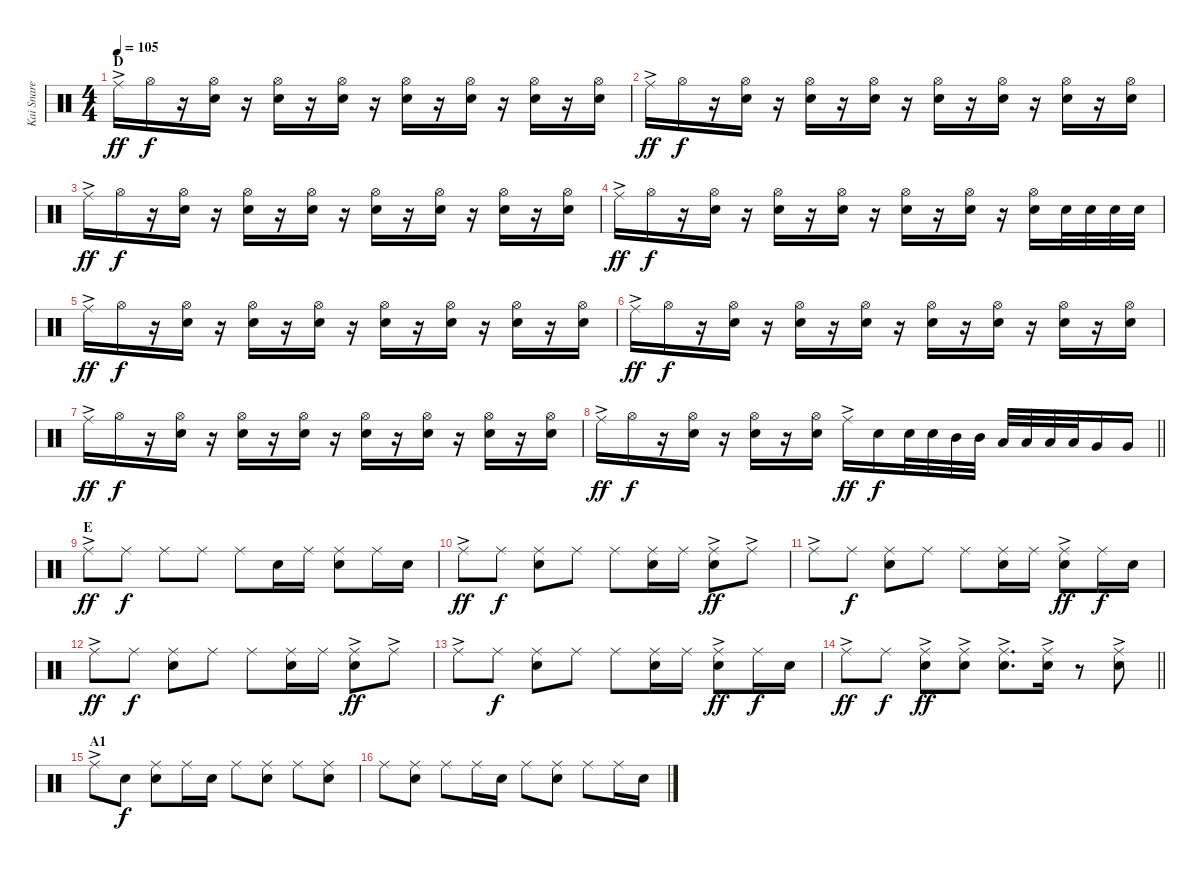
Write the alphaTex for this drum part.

\track ("Kai Snare" "Kai Snare") {instrument percussion}
\staff {score}
\articulation defaults
\ts (4 4)
\section ("" "D")
\tempo 105
\clef neutral
\ks c "Ride (middle)"{ac}.16{dy ff} "Hi-Hat (open)".16{dy f}
r.16 ("Hi-Hat (open)" "Snare (hit) 2").16 r.16 ("Hi-Hat (open)" "Snare (hit) 2").16 r.16 ("Hi-Hat (open)" "Snare (hit) 2").16 r.16 ("Hi-Hat (open)" "Snare (hit) 2").16 r.16 ("Hi-Hat (open)" "Snare (hit) 2").16 r.16 ("Hi-Hat (open)" "Snare (hit) 2").16 r.16 ("Hi-Hat (open)" "Snare (hit) 2").16 |
"Ride (middle)"{ac}.16{dy ff} "Hi-Hat (open)".16{dy f} r.16 ("Hi-Hat (open)" "Snare (hit) 2").16 r.16 ("Hi-Hat (open)" "Snare (hit) 2").16 r.16 ("Hi-Hat (open)" "Snare (hit) 2").16 r.16 ("Hi-Hat (open)" "Snare (hit) 2").16 r.16 ("Hi-Hat (open)" "Snare (hit) 2").16 r.16 ("Hi-Hat (open)" "Snare (hit) 2").16 r.16 ("Hi-Hat (open)" "Snare (hit) 2").16 |
"Ride (middle)"{ac}.16{dy ff} "Hi-Hat (open)".16{dy f} r.16 ("Hi-Hat (open)" "Snare (hit) 2").16 r.16 ("Hi-Hat (open)" "Snare (hit) 2").16 r.16 ("Hi-Hat (open)" "Snare (hit) 2").16 r.16 ("Hi-Hat (open)" "Snare (hit) 2").16 r.16 ("Hi-Hat (open)" "Snare (hit) 2").16 r.16 ("Hi-Hat (open)" "Snare (hit) 2").16 r.16 ("Hi-Hat (open)" "Snare (hit) 2").16 |
"Ride (middle)"{ac}.16{dy ff} "Hi-Hat (open)".16{dy f} r.16 ("Hi-Hat (open)" "Snare (hit) 2").16 r.16 ("Hi-Hat (open)" "Snare (hit) 2").16 r.16 ("Hi-Hat (open)" "Snare (hit) 2").16 r.16 ("Hi-Hat (open)" "Snare (hit) 2").16 r.16 ("Hi-Hat (open)" "Snare (hit) 2").16 r.16 ("Hi-Hat (open)" "Snare (hit) 2").16 "Snare (hit) 2".32 "Snare (hit) 2".32 "Snare (hit) 2".32 "Snare (hit) 2".32 |
"Ride (middle)"{ac}.16{dy ff} "Hi-Hat (open)".16{dy f} r.16 ("Hi-Hat (open)" "Snare (hit) 2").16 r.16 ("Hi-Hat (open)" "Snare (hit) 2").16 r.16 ("Hi-Hat (open)" "Snare (hit) 2").16 r.16 ("Hi-Hat (open)" "Snare (hit) 2").16 r.16 ("Hi-Hat (open)" "Snare (hit) 2").16 r.16 ("Hi-Hat (open)" "Snare (hit) 2").16 r.16 ("Hi-Hat (open)" "Snare (hit) 2").16 |
"Ride (middle)"{ac}.16{dy ff} "Hi-Hat (open)".16{dy f} r.16 ("Hi-Hat (open)" "Snare (hit) 2").16 r.16 ("Hi-Hat (open)" "Snare (hit) 2").16 r.16 ("Hi-Hat (open)" "Snare (hit) 2").16 r.16 ("Hi-Hat (open)" "Snare (hit) 2").16 r.16 ("Hi-Hat (open)" "Snare (hit) 2").16 r.16 ("Hi-Hat (open)" "Snare (hit) 2").16 r.16 ("Hi-Hat (open)" "Snare (hit) 2").16 |
"Ride (middle)"{ac}.16{dy ff} "Hi-Hat (open)".16{dy f} r.16 ("Hi-Hat (open)" "Snare (hit) 2").16 r.16 ("Hi-Hat (open)" "Snare (hit) 2").16 r.16 ("Hi-Hat (open)" "Snare (hit) 2").16 r.16 ("Hi-Hat (open)" "Snare (hit) 2").16 r.16 ("Hi-Hat (open)" "Snare (hit) 2").16 r.16 ("Hi-Hat (open)" "Snare (hit) 2").16 r.16 ("Hi-Hat (open)" "Snare (hit) 2").16 |
\barLineRight lightlight "Ride (middle)"{ac}.16{dy ff} "Hi-Hat (open)".16{dy f}
r.16 ("Hi-Hat (open)" "Snare (hit) 2").16 r.16 ("Hi-Hat (open)" "Snare (hit) 2").16 r.16 ("Hi-Hat (open)" "Snare (hit) 2").16 "Ride (middle)"{ac}.16{dy ff} "Snare (hit) 2".16{dy f} "Snare (hit) 2".32 "Snare (hit) 2".32 "Mid Tom (hit)".32 "Mid Tom (hit)".32 "Low Tom (hit)".32 "Low Tom (hit)".32 "Low Tom (hit)".32 "Low Tom (hit)".32 "Very Low Tom (hit)".16 "Very Low Tom (hit)".16 |
\section ("" "E")
"Ride (middle)"{ac}.8{dy ff} "Ride (middle)".8{dy f} "Ride (middle)".8 "Ride (middle)".8 "Ride (middle)".8 "Snare (hit) 2".16 "Ride (middle)".16 ("Ride (middle)" "Snare (hit) 2").8 "Ride (middle)".16 "Snare (hit) 2".16 |
"Ride (middle)"{ac}.8{dy ff} "Ride (middle)".8{dy f} ("Ride (middle)" "Snare (hit) 2").8 "Ride (middle)".8 "Ride (middle)".8 ("Ride (middle)" "Snare (hit) 2").16 "Ride (middle)".16 ("Ride (middle)"{ac} "Snare (hit) 2").8{dy ff} "Ride (middle)"{ac}.8 |
"Ride (middle)"{ac}.8 "Ride (middle)".8{dy f} ("Ride (middle)" "Snare (hit) 2").8 "Ride (middle)".8 "Ride (middle)".8 ("Ride (middle)" "Snare (hit) 2").16 "Ride (middle)".16 ("Ride (middle)"{ac} "Snare (hit) 2").8{dy ff} "Ride (middle)".16{dy f} "Snare (hit) 2".16 |
"Ride (middle)"{ac}.8{dy ff} "Ride (middle)".8{dy f} ("Ride (middle)" "Snare (hit) 2").8 "Ride (middle)".8 "Ride (middle)".8 ("Ride (middle)" "Snare (hit) 2").16 "Ride (middle)".16 ("Ride (middle)"{ac} "Snare (hit) 2").8{dy ff} "Ride (middle)"{ac}.8 |
"Ride (middle)"{ac}.8 "Ride (middle)".8{dy f} ("Ride (middle)" "Snare (hit) 2").8 "Ride (middle)".8 "Ride (middle)".8 ("Ride (middle)" "Snare (hit) 2").16 "Ride (middle)".16 ("Ride (middle)"{ac} "Snare (hit) 2").8{dy ff} "Ride (middle)".16{dy f} "Snare (hit) 2".16 |
\barLineRight lightlight "Ride (middle)"{ac}.8{dy ff} "Ride (middle)".8{dy f}
("Ride (middle)"{ac} "Snare (hit) 2").8{dy ff} ("Ride (middle)"{ac} "Snare (hit) 2").8 ("Ride (middle)"{ac} "Snare (hit) 2").8{d} ("Ride (middle)"{ac} "Snare (hit) 2").16 r.8 ("Ride (middle)"{ac} "Snare (hit) 2").8 |
\section ("" "A1")
"Ride (middle)"{ac}.8 "Snare (hit) 2".8{dy f} ("Ride (middle)" "Snare (hit) 2").8 "Ride (middle)".16 "Snare (hit) 2".16 "Ride (middle)".8 ("Ride (middle)" "Snare (hit) 2").8 "Ride (middle)".8 ("Ride (middle)" "Snare (hit) 2").8 |
"Ride (middle)".8 ("Ride (middle)" "Snare (hit) 2").8 "Ride (middle)".8 "Ride (middle)".16 "Snare (hit) 2".16 "Ride (middle)".8 ("Ride (middle)" "Snare (hit) 2").8 "Ride (middle)".8 "Ride (middle)".16 "Snare (hit) 2".16
